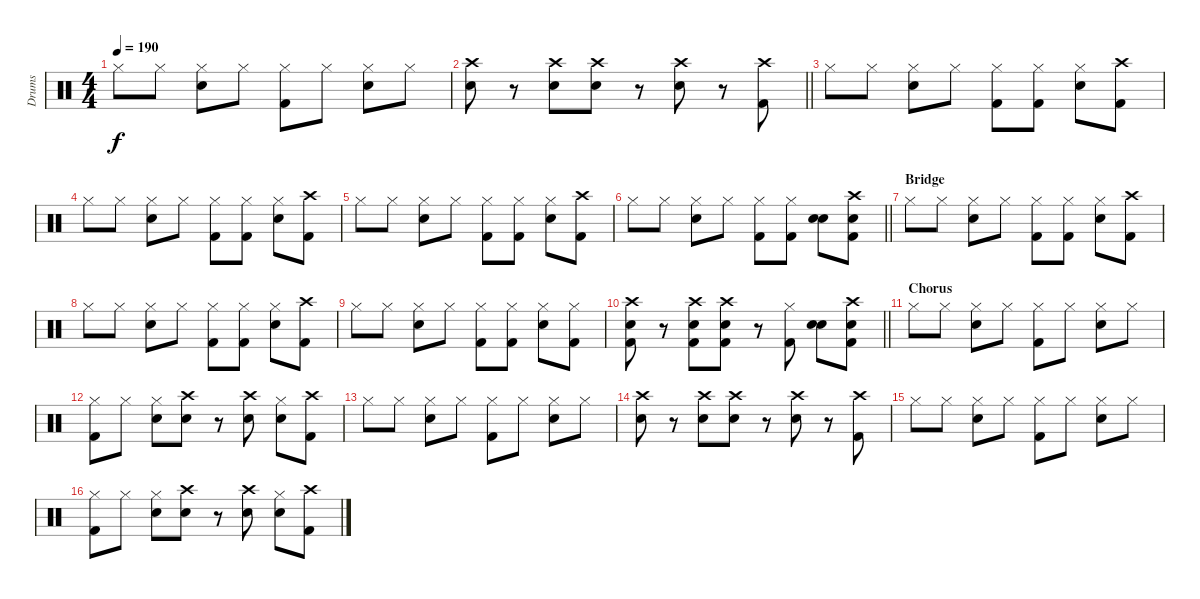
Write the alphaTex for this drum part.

\track ("Drums" "Drums") {instrument percussion}
\staff {score}
\articulation defaults
\ts (4 4)
\tempo 190
\clef neutral
\ks c "Hi-Hat (closed)".8{dy f} "Hi-Hat (closed)".8
("Hi-Hat (closed)" "Snare (hit) 2").8 "Hi-Hat (closed)".8 ("Hi-Hat (closed)" "Kick (hit) 2").8 "Hi-Hat (closed)".8 ("Hi-Hat (closed)" "Snare (hit) 2").8 "Hi-Hat (closed)".8 |
\barLineRight lightlight
("Crash high (hit)" "Snare (hit) 2").8 r.8 ("Crash high (hit)" "Snare (hit) 2").8 ("Crash high (hit)" "Snare (hit) 2").8 r.8 ("Crash high (hit)" "Snare (hit) 2").8 r.8 ("Crash high (hit)" "Kick (hit) 2").8 |
"Hi-Hat (closed)".8 "Hi-Hat (closed)".8 ("Hi-Hat (closed)" "Snare (hit) 2").8 "Hi-Hat (closed)".8 ("Hi-Hat (closed)" "Kick (hit) 2").8 ("Hi-Hat (closed)" "Kick (hit) 2").8 ("Hi-Hat (closed)" "Snare (hit) 2").8 ("Crash high (hit)" "Kick (hit) 2").8 |
"Hi-Hat (closed)".8 "Hi-Hat (closed)".8 ("Hi-Hat (closed)" "Snare (hit) 2").8 "Hi-Hat (closed)".8 ("Hi-Hat (closed)" "Kick (hit) 2").8 ("Hi-Hat (closed)" "Kick (hit) 2").8 ("Hi-Hat (closed)" "Snare (hit) 2").8 ("Crash high (hit)" "Kick (hit) 2").8 |
"Hi-Hat (closed)".8 "Hi-Hat (closed)".8 ("Hi-Hat (closed)" "Snare (hit) 2").8 "Hi-Hat (closed)".8 ("Hi-Hat (closed)" "Kick (hit) 2").8 ("Hi-Hat (closed)" "Kick (hit) 2").8 ("Hi-Hat (closed)" "Snare (hit) 2").8 ("Crash high (hit)" "Kick (hit) 2").8 |
\barLineRight lightlight "Hi-Hat (closed)".8 "Hi-Hat (closed)".8
("Hi-Hat (closed)" "Snare (hit) 2").8 "Hi-Hat (closed)".8 ("Hi-Hat (closed)" "Kick (hit) 2").8 ("Hi-Hat (closed)" "Kick (hit) 2").8 ("Snare (hit) 2" "Snare (hit) 2").8 ("Crash high (hit)" "Kick (hit) 2" "Snare (hit) 2").8 |
\section ("" "Bridge")
"Hi-Hat (closed)".8 "Hi-Hat (closed)".8 ("Hi-Hat (closed)" "Snare (hit) 2").8 "Hi-Hat (closed)".8 ("Hi-Hat (closed)" "Kick (hit) 2").8 ("Hi-Hat (closed)" "Kick (hit) 2").8 ("Hi-Hat (closed)" "Snare (hit) 2").8 ("Crash high (hit)" "Kick (hit) 2").8 |
"Hi-Hat (closed)".8 "Hi-Hat (closed)".8 ("Hi-Hat (closed)" "Snare (hit) 2").8 "Hi-Hat (closed)".8 ("Hi-Hat (closed)" "Kick (hit) 2").8 ("Hi-Hat (closed)" "Kick (hit) 2").8 ("Hi-Hat (closed)" "Snare (hit) 2").8 ("Crash high (hit)" "Kick (hit) 2").8 |
"Hi-Hat (closed)".8 "Hi-Hat (closed)".8 ("Hi-Hat (closed)" "Snare (hit) 2").8 "Hi-Hat (closed)".8 ("Hi-Hat (closed)" "Kick (hit) 2").8 ("Hi-Hat (closed)" "Kick (hit) 2").8 ("Hi-Hat (closed)" "Snare (hit) 2").8 ("Hi-Hat (closed)" "Kick (hit) 2").8 |
\barLineRight lightlight
("Crash high (hit)" "Snare (hit) 2" "Kick (hit) 2").8 r.8 ("Crash high (hit)" "Snare (hit) 2" "Kick (hit) 2").8 ("Crash high (hit)" "Snare (hit) 2" "Kick (hit) 2").8 r.8 ("Hi-Hat (closed)" "Kick (hit) 2").8 ("Snare (hit) 2" "Snare (hit) 2").8 ("Crash high (hit)" "Kick (hit) 2" "Snare (hit) 2").8 |
\section ("" "Chorus")
"Hi-Hat (closed)".8 "Hi-Hat (closed)".8 ("Hi-Hat (closed)" "Snare (hit) 2").8 "Hi-Hat (closed)".8 ("Hi-Hat (closed)" "Kick (hit) 2").8 "Hi-Hat (closed)".8 ("Hi-Hat (closed)" "Snare (hit) 2").8 "Hi-Hat (closed)".8 |
("Hi-Hat (closed)" "Kick (hit) 2").8 "Hi-Hat (closed)".8 ("Hi-Hat (closed)" "Snare (hit) 2").8 ("Crash high (hit)" "Snare (hit) 2").8 r.8 ("Crash high (hit)" "Snare (hit) 2").8 ("Hi-Hat (closed)" "Snare (hit) 2").8 ("Crash high (hit)" "Kick (hit) 2").8 |
"Hi-Hat (closed)".8 "Hi-Hat (closed)".8 ("Hi-Hat (closed)" "Snare (hit) 2").8 "Hi-Hat (closed)".8 ("Hi-Hat (closed)" "Kick (hit) 2").8 "Hi-Hat (closed)".8 ("Hi-Hat (closed)" "Snare (hit) 2").8 "Hi-Hat (closed)".8 |
("Crash high (hit)" "Snare (hit) 2").8 r.8 ("Crash high (hit)" "Snare (hit) 2").8 ("Crash high (hit)" "Snare (hit) 2").8 r.8 ("Crash high (hit)" "Snare (hit) 2").8 r.8 ("Crash high (hit)" "Kick (hit) 2").8 |
"Hi-Hat (closed)".8 "Hi-Hat (closed)".8 ("Hi-Hat (closed)" "Snare (hit) 2").8 "Hi-Hat (closed)".8 ("Hi-Hat (closed)" "Kick (hit) 2").8 "Hi-Hat (closed)".8 ("Hi-Hat (closed)" "Snare (hit) 2").8 "Hi-Hat (closed)".8 |
("Hi-Hat (closed)" "Kick (hit) 2").8 "Hi-Hat (closed)".8 ("Hi-Hat (closed)" "Snare (hit) 2").8 ("Crash high (hit)" "Snare (hit) 2").8 r.8 ("Crash high (hit)" "Snare (hit) 2").8 ("Hi-Hat (closed)" "Snare (hit) 2").8 ("Crash high (hit)" "Kick (hit) 2").8
